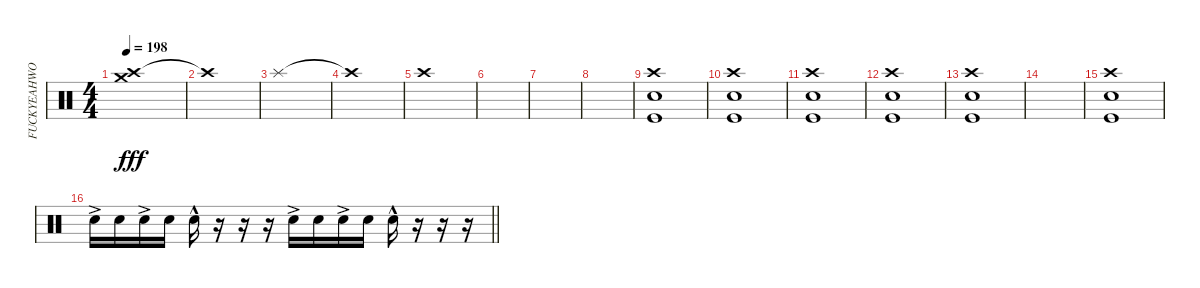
\track ("FUCKYEAHWOOTDAVEMACKINTOSH(Percussion)" "FUCKYEAHWO") {instrument percussion}
\staff {score}
\articulation defaults
\ts (4 4)
\tempo 198
\clef neutral
\ks c
("Crash high (hit)" "Crash medium (hit)").1{dy fff} |
"Crash high (hit)"{t}.1 |
"Splash (hit)".1 |
"Crash high (hit)"{t}.1 |
"Crash high (hit)".1 |
|
|
|
("Snare (hit) 2" "Kick (hit)" "Crash high (hit)").1 |
("Snare (hit) 2" "Kick (hit)" "Crash high (hit)").1 |
("Snare (hit) 2" "Kick (hit)" "Crash high (hit)").1 |
("Snare (hit) 2" "Kick (hit)" "Crash high (hit)").1 |
("Snare (hit) 2" "Kick (hit)" "Crash high (hit)").1 |
|
("Snare (hit) 2" "Kick (hit)" "Crash high (hit)").1 |
\barLineRight lightlight "Snare (hit) 2"{ac}.16 "Snare (hit) 2".16 "Snare (hit) 2"{ac}.16 "Snare (hit) 2".16 "Snare (hit) 2"{hac}.16
r.16 r.16 r.16 "Snare (hit) 2"{ac}.16 "Snare (hit) 2".16 "Snare (hit) 2"{ac}.16 "Snare (hit) 2".16 "Snare (hit) 2"{hac}.16 r.16 r.16 r.16
